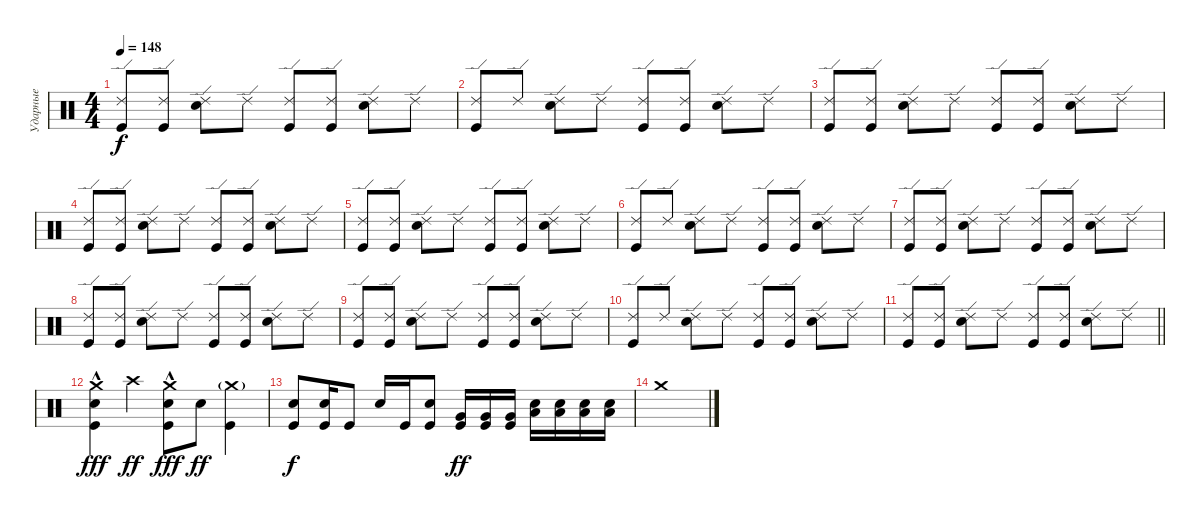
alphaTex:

\track ("Ударные" "Ударные") {instrument percussion}
\staff {score}
\articulation defaults
\ts (4 4)
\tempo 148
\clef neutral
\ks c
("Ride (edge) 2" "Kick (hit)").8{dy f} ("Ride (edge) 2" "Kick (hit)").8 ("Ride (edge) 2" "Electric Snare (hit)").8 "Ride (edge) 2".8 ("Ride (edge) 2" "Kick (hit)").8 ("Ride (edge) 2" "Kick (hit)").8 ("Ride (edge) 2" "Electric Snare (hit)").8 "Ride (edge) 2".8 |
("Ride (edge) 2" "Kick (hit)").8 "Ride (edge) 2".8 ("Ride (edge) 2" "Electric Snare (hit)").8 "Ride (edge) 2".8 ("Ride (edge) 2" "Kick (hit)").8 ("Ride (edge) 2" "Kick (hit)").8 ("Ride (edge) 2" "Electric Snare (hit)").8 "Ride (edge) 2".8 |
("Ride (edge) 2" "Kick (hit)").8 ("Ride (edge) 2" "Kick (hit)").8 ("Ride (edge) 2" "Electric Snare (hit)").8 "Ride (edge) 2".8 ("Ride (edge) 2" "Kick (hit)").8 ("Ride (edge) 2" "Kick (hit)").8 ("Ride (edge) 2" "Electric Snare (hit)").8 "Ride (edge) 2".8 |
("Ride (edge) 2" "Kick (hit)").8 ("Ride (edge) 2" "Kick (hit)").8 ("Ride (edge) 2" "Electric Snare (hit)").8 "Ride (edge) 2".8 ("Ride (edge) 2" "Kick (hit)").8 ("Ride (edge) 2" "Kick (hit)").8 ("Ride (edge) 2" "Electric Snare (hit)").8 "Ride (edge) 2".8 |
("Ride (edge) 2" "Kick (hit)").8 ("Ride (edge) 2" "Kick (hit)").8 ("Ride (edge) 2" "Electric Snare (hit)").8 "Ride (edge) 2".8 ("Ride (edge) 2" "Kick (hit)").8 ("Ride (edge) 2" "Kick (hit)").8 ("Ride (edge) 2" "Electric Snare (hit)").8 "Ride (edge) 2".8 |
("Ride (edge) 2" "Kick (hit)").8 "Ride (edge) 2".8 ("Ride (edge) 2" "Electric Snare (hit)").8 "Ride (edge) 2".8 ("Ride (edge) 2" "Kick (hit)").8 ("Ride (edge) 2" "Kick (hit)").8 ("Ride (edge) 2" "Electric Snare (hit)").8 "Ride (edge) 2".8 |
("Ride (edge) 2" "Kick (hit)").8 ("Ride (edge) 2" "Kick (hit)").8 ("Ride (edge) 2" "Electric Snare (hit)").8 "Ride (edge) 2".8 ("Ride (edge) 2" "Kick (hit)").8 ("Ride (edge) 2" "Kick (hit)").8 ("Ride (edge) 2" "Electric Snare (hit)").8 "Ride (edge) 2".8 |
("Ride (edge) 2" "Kick (hit)").8 ("Ride (edge) 2" "Kick (hit)").8 ("Ride (edge) 2" "Electric Snare (hit)").8 "Ride (edge) 2".8 ("Ride (edge) 2" "Kick (hit)").8 ("Ride (edge) 2" "Kick (hit)").8 ("Ride (edge) 2" "Electric Snare (hit)").8 "Ride (edge) 2".8 |
("Ride (edge) 2" "Kick (hit)").8 ("Ride (edge) 2" "Kick (hit)").8 ("Ride (edge) 2" "Electric Snare (hit)").8 "Ride (edge) 2".8 ("Ride (edge) 2" "Kick (hit)").8 ("Ride (edge) 2" "Kick (hit)").8 ("Ride (edge) 2" "Electric Snare (hit)").8 "Ride (edge) 2".8 |
("Ride (edge) 2" "Kick (hit)").8 "Ride (edge) 2".8 ("Ride (edge) 2" "Electric Snare (hit)").8 "Ride (edge) 2".8 ("Ride (edge) 2" "Kick (hit)").8 ("Ride (edge) 2" "Kick (hit)").8 ("Ride (edge) 2" "Electric Snare (hit)").8 "Ride (edge) 2".8 |
\barLineRight lightlight
("Ride (edge) 2" "Kick (hit)").8 ("Ride (edge) 2" "Kick (hit)").8 ("Ride (edge) 2" "Electric Snare (hit)").8 "Ride (edge) 2".8 ("Ride (edge) 2" "Kick (hit)").8 ("Ride (edge) 2" "Kick (hit)").8 ("Ride (edge) 2" "Electric Snare (hit)").8 "Ride (edge) 2".8 |
("Crash medium (hit)"{hac} "Electric Snare (hit)" "Kick (hit)").4{dy fff} "Crash high (hit)".4{dy ff} ("Crash medium (hit)"{hac} "Electric Snare (hit)" "Kick (hit)").8{dy fff} "Electric Snare (hit)".8{dy ff} ("Crash medium (hit)"{g} "Kick (hit)").4 |
("Electric Snare (hit)" "Kick (hit)").8{dy f} ("Electric Snare (hit)" "Kick (hit)").16 "Kick (hit)".8 "Electric Snare (hit)".16 "Kick (hit)".16 ("Electric Snare (hit)" "Kick (hit)").8 ("Very Low Tom (hit)" "Kick (hit)").16{dy ff} ("Very Low Tom (hit)" "Kick (hit)").16 ("Very Low Tom (hit)" "Kick (hit)").16 ("Low Floor Tom (hit)" "Electric Snare (hit)").16 ("Low Floor Tom (hit)" "Electric Snare (hit)").16 ("Low Floor Tom (hit)" "Electric Snare (hit)").16 ("Low Floor Tom (hit)" "Electric Snare (hit)").16 |
"Crash medium (hit)".1
